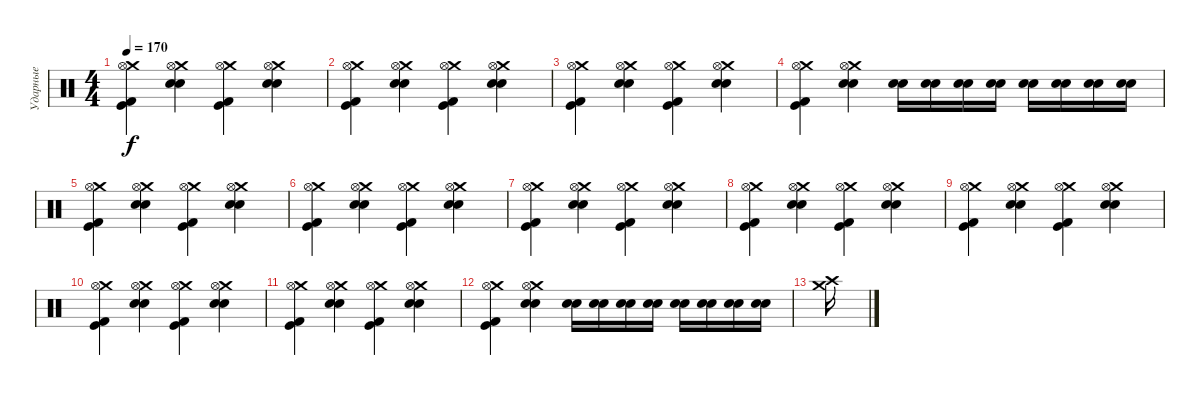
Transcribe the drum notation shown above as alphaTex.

\track ("Ударные" "Ударные") {instrument percussion}
\staff {score}
\articulation defaults
\ts (4 4)
\tempo 170
\clef neutral
\ks c
("Crash medium (hit)" "Hi-Hat (open)" "Kick (hit)" "Kick (hit) 2").4{dy f} ("Crash medium (hit)" "Hi-Hat (open)" "Electric Snare (hit)" "Snare (hit) 2").4 ("Crash medium (hit)" "Hi-Hat (open)" "Kick (hit)" "Kick (hit) 2").4 ("Crash medium (hit)" "Hi-Hat (open)" "Electric Snare (hit)" "Snare (hit) 2").4 |
("Crash medium (hit)" "Hi-Hat (open)" "Kick (hit)" "Kick (hit) 2").4 ("Crash medium (hit)" "Hi-Hat (open)" "Electric Snare (hit)" "Snare (hit) 2").4 ("Crash medium (hit)" "Hi-Hat (open)" "Kick (hit)" "Kick (hit) 2").4 ("Crash medium (hit)" "Hi-Hat (open)" "Electric Snare (hit)" "Snare (hit) 2").4 |
("Crash medium (hit)" "Hi-Hat (open)" "Kick (hit)" "Kick (hit) 2").4 ("Crash medium (hit)" "Hi-Hat (open)" "Electric Snare (hit)" "Snare (hit) 2").4 ("Crash medium (hit)" "Hi-Hat (open)" "Kick (hit)" "Kick (hit) 2").4 ("Crash medium (hit)" "Hi-Hat (open)" "Electric Snare (hit)" "Snare (hit) 2").4 |
("Crash medium (hit)" "Hi-Hat (open)" "Kick (hit)" "Kick (hit) 2").4 ("Crash medium (hit)" "Hi-Hat (open)" "Electric Snare (hit)" "Snare (hit) 2").4 ("Snare (hit) 2" "Electric Snare (hit)").16 ("Snare (hit) 2" "Electric Snare (hit)").16 ("Snare (hit) 2" "Electric Snare (hit)").16 ("Snare (hit) 2" "Electric Snare (hit)").16 ("Snare (hit) 2" "Electric Snare (hit)").16 ("Snare (hit) 2" "Electric Snare (hit)").16 ("Snare (hit) 2" "Electric Snare (hit)").16 ("Snare (hit) 2" "Electric Snare (hit)").16 |
("Crash medium (hit)" "Hi-Hat (open)" "Kick (hit)" "Kick (hit) 2").4 ("Crash medium (hit)" "Hi-Hat (open)" "Electric Snare (hit)" "Snare (hit) 2").4 ("Crash medium (hit)" "Hi-Hat (open)" "Kick (hit)" "Kick (hit) 2").4 ("Crash medium (hit)" "Hi-Hat (open)" "Electric Snare (hit)" "Snare (hit) 2").4 |
("Crash medium (hit)" "Hi-Hat (open)" "Kick (hit)" "Kick (hit) 2").4 ("Crash medium (hit)" "Hi-Hat (open)" "Electric Snare (hit)" "Snare (hit) 2").4 ("Crash medium (hit)" "Hi-Hat (open)" "Kick (hit)" "Kick (hit) 2").4 ("Crash medium (hit)" "Hi-Hat (open)" "Electric Snare (hit)" "Snare (hit) 2").4 |
("Crash medium (hit)" "Hi-Hat (open)" "Kick (hit)" "Kick (hit) 2").4 ("Crash medium (hit)" "Hi-Hat (open)" "Electric Snare (hit)" "Snare (hit) 2").4 ("Crash medium (hit)" "Hi-Hat (open)" "Kick (hit)" "Kick (hit) 2").4 ("Crash medium (hit)" "Hi-Hat (open)" "Electric Snare (hit)" "Snare (hit) 2").4 |
("Crash medium (hit)" "Hi-Hat (open)" "Kick (hit)" "Kick (hit) 2").4 ("Crash medium (hit)" "Hi-Hat (open)" "Electric Snare (hit)" "Snare (hit) 2").4 ("Crash medium (hit)" "Hi-Hat (open)" "Kick (hit)" "Kick (hit) 2").4 ("Crash medium (hit)" "Hi-Hat (open)" "Electric Snare (hit)" "Snare (hit) 2").4 |
("Crash medium (hit)" "Hi-Hat (open)" "Kick (hit)" "Kick (hit) 2").4 ("Crash medium (hit)" "Hi-Hat (open)" "Electric Snare (hit)" "Snare (hit) 2").4 ("Crash medium (hit)" "Hi-Hat (open)" "Kick (hit)" "Kick (hit) 2").4 ("Crash medium (hit)" "Hi-Hat (open)" "Electric Snare (hit)" "Snare (hit) 2").4 |
("Crash medium (hit)" "Hi-Hat (open)" "Kick (hit)" "Kick (hit) 2").4 ("Crash medium (hit)" "Hi-Hat (open)" "Electric Snare (hit)" "Snare (hit) 2").4 ("Crash medium (hit)" "Hi-Hat (open)" "Kick (hit)" "Kick (hit) 2").4 ("Crash medium (hit)" "Hi-Hat (open)" "Electric Snare (hit)" "Snare (hit) 2").4 |
("Crash medium (hit)" "Hi-Hat (open)" "Kick (hit)" "Kick (hit) 2").4 ("Crash medium (hit)" "Hi-Hat (open)" "Electric Snare (hit)" "Snare (hit) 2").4 ("Crash medium (hit)" "Hi-Hat (open)" "Kick (hit)" "Kick (hit) 2").4 ("Crash medium (hit)" "Hi-Hat (open)" "Electric Snare (hit)" "Snare (hit) 2").4 |
("Crash medium (hit)" "Hi-Hat (open)" "Kick (hit)" "Kick (hit) 2").4 ("Crash medium (hit)" "Hi-Hat (open)" "Electric Snare (hit)" "Snare (hit) 2").4 ("Snare (hit) 2" "Electric Snare (hit)").16 ("Snare (hit) 2" "Electric Snare (hit)").16 ("Snare (hit) 2" "Electric Snare (hit)").16 ("Snare (hit) 2" "Electric Snare (hit)").16 ("Snare (hit) 2" "Electric Snare (hit)").16 ("Snare (hit) 2" "Electric Snare (hit)").16 ("Snare (hit) 2" "Electric Snare (hit)").16 ("Snare (hit) 2" "Electric Snare (hit)").16 |
("Crash medium (hit)" "Crash high (hit)").16
